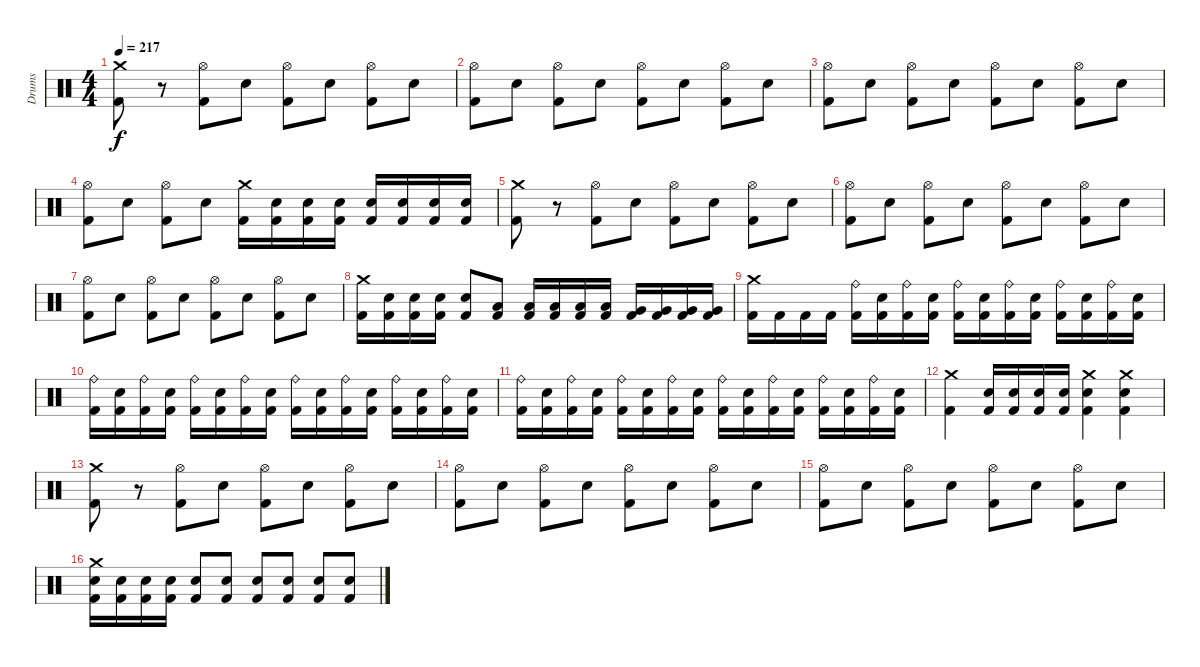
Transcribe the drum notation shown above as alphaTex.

\track ("Drums" "Drums") {instrument percussion}
\staff {score}
\articulation defaults
\ts (4 4)
\tempo 217
\clef neutral
\ks c
("Crash medium (hit)" "Kick (hit) 2").8{dy f} r.8 ("Hi-Hat (open)" "Kick (hit) 2").8 "Electric Snare (hit)".8 ("Hi-Hat (open)" "Kick (hit) 2").8 "Electric Snare (hit)".8 ("Hi-Hat (open)" "Kick (hit) 2").8 "Electric Snare (hit)".8 |
("Hi-Hat (open)" "Kick (hit) 2").8 "Electric Snare (hit)".8 ("Hi-Hat (open)" "Kick (hit) 2").8 "Electric Snare (hit)".8 ("Hi-Hat (open)" "Kick (hit) 2").8 "Electric Snare (hit)".8 ("Hi-Hat (open)" "Kick (hit) 2").8 "Electric Snare (hit)".8 |
("Hi-Hat (open)" "Kick (hit) 2").8 "Electric Snare (hit)".8 ("Hi-Hat (open)" "Kick (hit) 2").8 "Electric Snare (hit)".8 ("Hi-Hat (open)" "Kick (hit) 2").8 "Electric Snare (hit)".8 ("Hi-Hat (open)" "Kick (hit) 2").8 "Electric Snare (hit)".8 |
("Hi-Hat (open)" "Kick (hit) 2").8 "Electric Snare (hit)".8 ("Hi-Hat (open)" "Kick (hit) 2").8 "Electric Snare (hit)".8 ("Crash medium (hit)" "Kick (hit) 2").16 ("Electric Snare (hit)" "Kick (hit) 2").16 ("Electric Snare (hit)" "Kick (hit) 2").16 ("Electric Snare (hit)" "Kick (hit) 2").16 ("Electric Snare (hit)" "Kick (hit) 2").16 ("Electric Snare (hit)" "Kick (hit) 2").16 ("Electric Snare (hit)" "Kick (hit) 2").16 ("Electric Snare (hit)" "Kick (hit) 2").16 |
("Crash medium (hit)" "Kick (hit) 2").8 r.8 ("Hi-Hat (open)" "Kick (hit) 2").8 "Electric Snare (hit)".8 ("Hi-Hat (open)" "Kick (hit) 2").8 "Electric Snare (hit)".8 ("Hi-Hat (open)" "Kick (hit) 2").8 "Electric Snare (hit)".8 |
("Hi-Hat (open)" "Kick (hit) 2").8 "Electric Snare (hit)".8 ("Hi-Hat (open)" "Kick (hit) 2").8 "Electric Snare (hit)".8 ("Hi-Hat (open)" "Kick (hit) 2").8 "Electric Snare (hit)".8 ("Hi-Hat (open)" "Kick (hit) 2").8 "Electric Snare (hit)".8 |
("Hi-Hat (open)" "Kick (hit) 2").8 "Electric Snare (hit)".8 ("Hi-Hat (open)" "Kick (hit) 2").8 "Electric Snare (hit)".8 ("Hi-Hat (open)" "Kick (hit) 2").8 "Electric Snare (hit)".8 ("Hi-Hat (open)" "Kick (hit) 2").8 "Electric Snare (hit)".8 |
("Crash medium (hit)" "Kick (hit) 2").16 ("Electric Snare (hit)" "Kick (hit) 2").16 ("Electric Snare (hit)" "Kick (hit) 2").16 ("Electric Snare (hit)" "Kick (hit) 2").16 ("Electric Snare (hit)" "Kick (hit) 2").8 ("Low Tom (hit)" "Kick (hit) 2").8 ("Low Tom (hit)" "Kick (hit) 2").16 ("Low Tom (hit)" "Kick (hit) 2").16 ("Low Tom (hit)" "Kick (hit) 2").16 ("Low Tom (hit)" "Kick (hit) 2").16 ("Very Low Tom (hit)" "Kick (hit) 2").16 ("Very Low Tom (hit)" "Kick (hit) 2").16 ("Very Low Tom (hit)" "Kick (hit) 2").16 ("Very Low Tom (hit)" "Kick (hit) 2").16 |
("Crash medium (hit)" "Kick (hit) 2").16 "Kick (hit) 2".16 "Kick (hit) 2".16 "Kick (hit) 2".16 ("Ride (bell)" "Kick (hit) 2").16 ("Electric Snare (hit)" "Kick (hit) 2").16 ("Ride (bell)" "Kick (hit) 2").16 ("Electric Snare (hit)" "Kick (hit) 2").16 ("Ride (bell)" "Kick (hit) 2").16 ("Electric Snare (hit)" "Kick (hit) 2").16 ("Ride (bell)" "Kick (hit) 2").16 ("Electric Snare (hit)" "Kick (hit) 2").16 ("Ride (bell)" "Kick (hit) 2").16 ("Electric Snare (hit)" "Kick (hit) 2").16 ("Ride (bell)" "Kick (hit) 2").16 ("Electric Snare (hit)" "Kick (hit) 2").16 |
("Ride (bell)" "Kick (hit) 2").16 ("Electric Snare (hit)" "Kick (hit) 2").16 ("Ride (bell)" "Kick (hit) 2").16 ("Electric Snare (hit)" "Kick (hit) 2").16 ("Ride (bell)" "Kick (hit) 2").16 ("Electric Snare (hit)" "Kick (hit) 2").16 ("Ride (bell)" "Kick (hit) 2").16 ("Electric Snare (hit)" "Kick (hit) 2").16 ("Ride (bell)" "Kick (hit) 2").16 ("Electric Snare (hit)" "Kick (hit) 2").16 ("Ride (bell)" "Kick (hit) 2").16 ("Electric Snare (hit)" "Kick (hit) 2").16 ("Ride (bell)" "Kick (hit) 2").16 ("Electric Snare (hit)" "Kick (hit) 2").16 ("Ride (bell)" "Kick (hit) 2").16 ("Electric Snare (hit)" "Kick (hit) 2").16 |
("Ride (bell)" "Kick (hit) 2").16 ("Electric Snare (hit)" "Kick (hit) 2").16 ("Ride (bell)" "Kick (hit) 2").16 ("Electric Snare (hit)" "Kick (hit) 2").16 ("Ride (bell)" "Kick (hit) 2").16 ("Electric Snare (hit)" "Kick (hit) 2").16 ("Ride (bell)" "Kick (hit) 2").16 ("Electric Snare (hit)" "Kick (hit) 2").16 ("Ride (bell)" "Kick (hit) 2").16 ("Electric Snare (hit)" "Kick (hit) 2").16 ("Ride (bell)" "Kick (hit) 2").16 ("Electric Snare (hit)" "Kick (hit) 2").16 ("Ride (bell)" "Kick (hit) 2").16 ("Electric Snare (hit)" "Kick (hit) 2").16 ("Ride (bell)" "Kick (hit) 2").16 ("Electric Snare (hit)" "Kick (hit) 2").16 |
("Crash medium (hit)" "Kick (hit) 2").4 ("Electric Snare (hit)" "Kick (hit) 2").16 ("Electric Snare (hit)" "Kick (hit) 2").16 ("Electric Snare (hit)" "Kick (hit) 2").16 ("Electric Snare (hit)" "Kick (hit) 2").16 ("Crash medium (hit)" "Electric Snare (hit)" "Kick (hit) 2").4 ("Crash medium (hit)" "Electric Snare (hit)" "Kick (hit) 2").4 |
("Crash medium (hit)" "Kick (hit) 2").8 r.8 ("Hi-Hat (open)" "Kick (hit) 2").8 "Electric Snare (hit)".8 ("Hi-Hat (open)" "Kick (hit) 2").8 "Electric Snare (hit)".8 ("Hi-Hat (open)" "Kick (hit) 2").8 "Electric Snare (hit)".8 |
("Hi-Hat (open)" "Kick (hit) 2").8 "Electric Snare (hit)".8 ("Hi-Hat (open)" "Kick (hit) 2").8 "Electric Snare (hit)".8 ("Hi-Hat (open)" "Kick (hit) 2").8 "Electric Snare (hit)".8 ("Hi-Hat (open)" "Kick (hit) 2").8 "Electric Snare (hit)".8 |
("Hi-Hat (open)" "Kick (hit) 2").8 "Electric Snare (hit)".8 ("Hi-Hat (open)" "Kick (hit) 2").8 "Electric Snare (hit)".8 ("Hi-Hat (open)" "Kick (hit) 2").8 "Electric Snare (hit)".8 ("Hi-Hat (open)" "Kick (hit) 2").8 "Electric Snare (hit)".8 |
("Crash medium (hit)" "Electric Snare (hit)" "Kick (hit) 2").16 ("Electric Snare (hit)" "Kick (hit) 2").16 ("Electric Snare (hit)" "Kick (hit) 2").16 ("Electric Snare (hit)" "Kick (hit) 2").16 ("Electric Snare (hit)" "Kick (hit) 2").8 ("Electric Snare (hit)" "Kick (hit) 2").8 ("Electric Snare (hit)" "Kick (hit) 2").8 ("Electric Snare (hit)" "Kick (hit) 2").8 ("Electric Snare (hit)" "Kick (hit) 2").8 ("Electric Snare (hit)" "Kick (hit) 2").8
